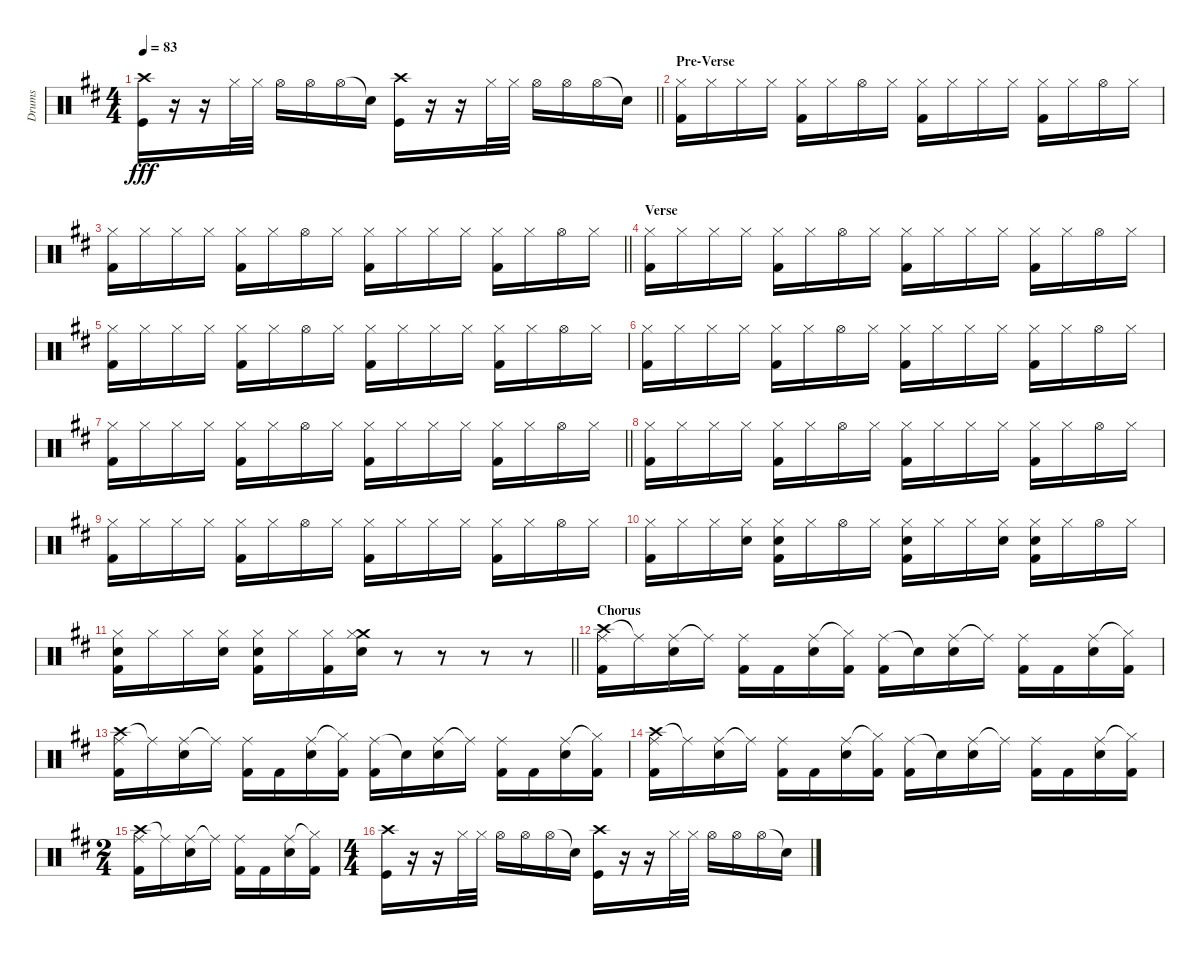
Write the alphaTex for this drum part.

\track ("Drums" "Drums") {instrument percussion}
\staff {score}
\articulation defaults
\ts (4 4)
\tempo 83
\clef neutral
\barLineRight lightlight
\ks d
("Crash high (hit)" "Kick (hit)").16{dy fff} r.16 r.16 "Hi-Hat (closed)".32 "Hi-Hat (closed)".32 "Hi-Hat (open)".16 "Hi-Hat (open)".16 "Hi-Hat (open)".16 "Snare (hit)"{t}.16 ("Crash high (hit)" "Kick (hit)").16 r.16 r.16 "Hi-Hat (closed)".32 "Hi-Hat (closed)".32 "Hi-Hat (open)".16 "Hi-Hat (open)".16 "Hi-Hat (open)".16 "Snare (hit)"{t}.16 |
\section ("" "Pre-Verse")
("Hi-Hat (closed)" "Kick (hit) 2").16 "Hi-Hat (closed)".16 "Hi-Hat (closed)".16 "Hi-Hat (closed)".16 ("Hi-Hat (closed)" "Kick (hit) 2").16 "Hi-Hat (closed)".16 "Hi-Hat (open)".16 "Hi-Hat (closed)".16 ("Hi-Hat (closed)" "Kick (hit) 2").16 "Hi-Hat (closed)".16 "Hi-Hat (closed)".16 "Hi-Hat (closed)".16 ("Hi-Hat (closed)" "Kick (hit) 2").16 "Hi-Hat (closed)".16 "Hi-Hat (open)".16 "Hi-Hat (closed)".16 |
\barLineRight lightlight
("Hi-Hat (closed)" "Kick (hit) 2").16 "Hi-Hat (closed)".16 "Hi-Hat (closed)".16 "Hi-Hat (closed)".16 ("Hi-Hat (closed)" "Kick (hit) 2").16 "Hi-Hat (closed)".16 "Hi-Hat (open)".16 "Hi-Hat (closed)".16 ("Hi-Hat (closed)" "Kick (hit) 2").16 "Hi-Hat (closed)".16 "Hi-Hat (closed)".16 "Hi-Hat (closed)".16 ("Hi-Hat (closed)" "Kick (hit) 2").16 "Hi-Hat (closed)".16 "Hi-Hat (open)".16 "Hi-Hat (closed)".16 |
\section ("" "Verse")
("Hi-Hat (closed)" "Kick (hit) 2").16 "Hi-Hat (closed)".16 "Hi-Hat (closed)".16 "Hi-Hat (closed)".16 ("Hi-Hat (closed)" "Kick (hit) 2").16 "Hi-Hat (closed)".16 "Hi-Hat (open)".16 "Hi-Hat (closed)".16 ("Hi-Hat (closed)" "Kick (hit) 2").16 "Hi-Hat (closed)".16 "Hi-Hat (closed)".16 "Hi-Hat (closed)".16 ("Hi-Hat (closed)" "Kick (hit) 2").16 "Hi-Hat (closed)".16 "Hi-Hat (open)".16 "Hi-Hat (closed)".16 |
("Hi-Hat (closed)" "Kick (hit) 2").16 "Hi-Hat (closed)".16 "Hi-Hat (closed)".16 "Hi-Hat (closed)".16 ("Hi-Hat (closed)" "Kick (hit) 2").16 "Hi-Hat (closed)".16 "Hi-Hat (open)".16 "Hi-Hat (closed)".16 ("Hi-Hat (closed)" "Kick (hit) 2").16 "Hi-Hat (closed)".16 "Hi-Hat (closed)".16 "Hi-Hat (closed)".16 ("Hi-Hat (closed)" "Kick (hit) 2").16 "Hi-Hat (closed)".16 "Hi-Hat (open)".16 "Hi-Hat (closed)".16 |
("Hi-Hat (closed)" "Kick (hit) 2").16 "Hi-Hat (closed)".16 "Hi-Hat (closed)".16 "Hi-Hat (closed)".16 ("Hi-Hat (closed)" "Kick (hit) 2").16 "Hi-Hat (closed)".16 "Hi-Hat (open)".16 "Hi-Hat (closed)".16 ("Hi-Hat (closed)" "Kick (hit) 2").16 "Hi-Hat (closed)".16 "Hi-Hat (closed)".16 "Hi-Hat (closed)".16 ("Hi-Hat (closed)" "Kick (hit) 2").16 "Hi-Hat (closed)".16 "Hi-Hat (open)".16 "Hi-Hat (closed)".16 |
\barLineRight lightlight
("Hi-Hat (closed)" "Kick (hit) 2").16 "Hi-Hat (closed)".16 "Hi-Hat (closed)".16 "Hi-Hat (closed)".16 ("Hi-Hat (closed)" "Kick (hit) 2").16 "Hi-Hat (closed)".16 "Hi-Hat (open)".16 "Hi-Hat (closed)".16 ("Hi-Hat (closed)" "Kick (hit) 2").16 "Hi-Hat (closed)".16 "Hi-Hat (closed)".16 "Hi-Hat (closed)".16 ("Hi-Hat (closed)" "Kick (hit) 2").16 "Hi-Hat (closed)".16 "Hi-Hat (open)".16 "Hi-Hat (closed)".16 |
("Hi-Hat (closed)" "Kick (hit) 2").16 "Hi-Hat (closed)".16 "Hi-Hat (closed)".16 "Hi-Hat (closed)".16 ("Hi-Hat (closed)" "Kick (hit) 2").16 "Hi-Hat (closed)".16 "Hi-Hat (open)".16 "Hi-Hat (closed)".16 ("Hi-Hat (closed)" "Kick (hit) 2").16 "Hi-Hat (closed)".16 "Hi-Hat (closed)".16 "Hi-Hat (closed)".16 ("Hi-Hat (closed)" "Kick (hit) 2").16 "Hi-Hat (closed)".16 "Hi-Hat (open)".16 "Hi-Hat (closed)".16 |
("Hi-Hat (closed)" "Kick (hit) 2").16 "Hi-Hat (closed)".16 "Hi-Hat (closed)".16 "Hi-Hat (closed)".16 ("Hi-Hat (closed)" "Kick (hit) 2").16 "Hi-Hat (closed)".16 "Hi-Hat (open)".16 "Hi-Hat (closed)".16 ("Hi-Hat (closed)" "Kick (hit) 2").16 "Hi-Hat (closed)".16 "Hi-Hat (closed)".16 "Hi-Hat (closed)".16 ("Hi-Hat (closed)" "Kick (hit) 2").16 "Hi-Hat (closed)".16 "Hi-Hat (open)".16 "Hi-Hat (closed)".16 |
("Hi-Hat (closed)" "Kick (hit) 2").16 "Hi-Hat (closed)".16 "Hi-Hat (closed)".16 ("Hi-Hat (closed)" "Electric Snare (hit)").16 ("Hi-Hat (closed)" "Electric Snare (hit)" "Kick (hit) 2").16 "Hi-Hat (closed)".16 "Hi-Hat (open)".16 "Hi-Hat (closed)".16 ("Hi-Hat (closed)" "Electric Snare (hit)" "Kick (hit) 2").16 "Hi-Hat (closed)".16 "Hi-Hat (closed)".16 ("Hi-Hat (closed)" "Electric Snare (hit)").16 ("Hi-Hat (closed)" "Electric Snare (hit)" "Kick (hit) 2").16 "Hi-Hat (closed)".16 "Hi-Hat (open)".16 "Hi-Hat (closed)".16 |
\barLineRight lightlight
("Hi-Hat (closed)" "Electric Snare (hit)" "Kick (hit) 2").16 "Hi-Hat (closed)".16 "Hi-Hat (closed)".16 ("Hi-Hat (closed)" "Electric Snare (hit)").16 ("Hi-Hat (closed)" "Electric Snare (hit)" "Kick (hit) 2").16 "Hi-Hat (closed)".16 ("Hi-Hat (closed)" "Kick (hit) 2").16 ("Crash medium (hit)" "Hi-Hat (closed)" "Electric Snare (hit)").16 r.8 r.8 r.8 r.8 |
\section ("" "Chorus")
("Crash high (hit)" "Ride (middle)" "Kick (hit) 2").16 "Ride (middle)"{t}.16 ("Ride (middle)" "Electric Snare (hit)").16 "Ride (middle)"{t}.16 ("Ride (middle)" "Kick (hit) 2").16 "Kick (hit) 2".16 ("Ride (middle)" "Electric Snare (hit)").16 ("Hi-Hat (closed)"{t} "Kick (hit) 2").16 ("Ride (middle)" "Kick (hit) 2").16 "Snare (hit)"{t}.16 ("Ride (middle)" "Electric Snare (hit)").16 "Ride (middle)"{t}.16 ("Ride (middle)" "Kick (hit) 2").16 "Kick (hit) 2".16 ("Ride (middle)" "Electric Snare (hit)").16 ("Hi-Hat (closed)"{t} "Kick (hit) 2").16 |
("Crash high (hit)" "Ride (middle)" "Kick (hit) 2").16 "Ride (middle)"{t}.16 ("Ride (middle)" "Electric Snare (hit)").16 "Ride (middle)"{t}.16 ("Ride (middle)" "Kick (hit) 2").16 "Kick (hit) 2".16 ("Ride (middle)" "Electric Snare (hit)").16 ("Hi-Hat (closed)"{t} "Kick (hit) 2").16 ("Ride (middle)" "Kick (hit) 2").16 "Snare (hit)"{t}.16 ("Ride (middle)" "Electric Snare (hit)").16 "Ride (middle)"{t}.16 ("Ride (middle)" "Kick (hit) 2").16 "Kick (hit) 2".16 ("Ride (middle)" "Electric Snare (hit)").16 ("Hi-Hat (closed)"{t} "Kick (hit) 2").16 |
("Crash high (hit)" "Ride (middle)" "Kick (hit) 2").16 "Ride (middle)"{t}.16 ("Ride (middle)" "Electric Snare (hit)").16 "Ride (middle)"{t}.16 ("Ride (middle)" "Kick (hit) 2").16 "Kick (hit) 2".16 ("Ride (middle)" "Electric Snare (hit)").16 ("Hi-Hat (closed)"{t} "Kick (hit) 2").16 ("Ride (middle)" "Kick (hit) 2").16 "Snare (hit)"{t}.16 ("Ride (middle)" "Electric Snare (hit)").16 "Ride (middle)"{t}.16 ("Ride (middle)" "Kick (hit) 2").16 "Kick (hit) 2".16 ("Ride (middle)" "Electric Snare (hit)").16 ("Hi-Hat (closed)"{t} "Kick (hit) 2").16 |
\ts (2 4)
("Crash high (hit)" "Ride (middle)" "Kick (hit) 2").16 "Ride (middle)"{t}.16 ("Ride (middle)" "Electric Snare (hit)").16 "Ride (middle)"{t}.16 ("Ride (middle)" "Kick (hit) 2").16 "Kick (hit) 2".16 ("Ride (middle)" "Electric Snare (hit)").16 ("Hi-Hat (closed)"{t} "Kick (hit) 2").16 |
\ts (4 4)
("Crash high (hit)" "Kick (hit)").16 r.16 r.16 "Hi-Hat (closed)".32 "Hi-Hat (closed)".32 "Hi-Hat (open)".16 "Hi-Hat (open)".16 "Hi-Hat (open)".16 "Snare (hit)"{t}.16 ("Crash high (hit)" "Kick (hit)").16 r.16 r.16 "Hi-Hat (closed)".32 "Hi-Hat (closed)".32 "Hi-Hat (open)".16 "Hi-Hat (open)".16 "Hi-Hat (open)".16 "Snare (hit)"{t}.16
